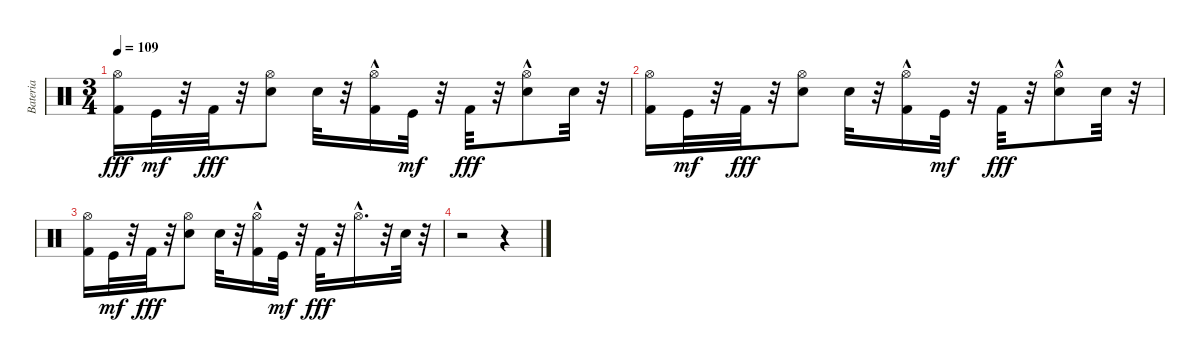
\track ("Bateria" "Bateria") {instrument percussion}
\staff {score}
\articulation defaults
\ts (3 4)
\tempo 109
\clef neutral
\ks c
("Kick (hit) 2" "Hi-Hat (open)").16{dy fff} "Kick (hit)".32{dy mf} r.32 "Kick (hit) 2".32{dy fff} r.32 ("Electric Snare (hit)" "Hi-Hat (open)").8 "Electric Snare (hit)".32 r.32 ("Kick (hit) 2" "Hi-Hat (open)"{hac}).16 "Kick (hit)".32{dy mf} r.32 "Kick (hit) 2".32{dy fff} r.32 ("Electric Snare (hit)" "Hi-Hat (open)"{hac}).8 "Electric Snare (hit)".32 r.32 |
("Kick (hit) 2" "Hi-Hat (open)").16 "Kick (hit)".32{dy mf} r.32 "Kick (hit) 2".32{dy fff} r.32 ("Electric Snare (hit)" "Hi-Hat (open)").8 "Electric Snare (hit)".32 r.32 ("Kick (hit) 2" "Hi-Hat (open)"{hac}).16 "Kick (hit)".32{dy mf} r.32 "Kick (hit) 2".32{dy fff} r.32 ("Electric Snare (hit)" "Hi-Hat (open)"{hac}).8 "Electric Snare (hit)".32 r.32 |
("Kick (hit) 2" "Hi-Hat (open)").16 "Kick (hit)".32{dy mf} r.32 "Kick (hit) 2".32{dy fff} r.32 ("Electric Snare (hit)" "Hi-Hat (open)").8 "Electric Snare (hit)".32 r.32 ("Kick (hit) 2" "Hi-Hat (open)"{hac}).16 "Kick (hit)".32{dy mf} r.32 "Kick (hit) 2".32{dy fff} r.32 "Hi-Hat (open)"{hac}.16{d} r.32 "Electric Snare (hit)".32 r.32 |
r.2 r.4
